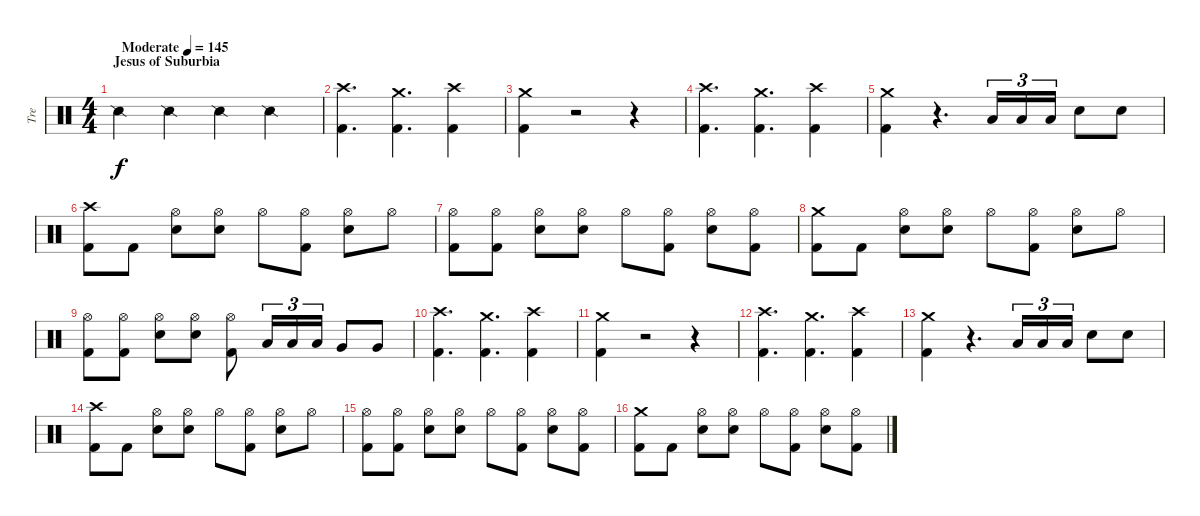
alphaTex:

\track ("Tre" "Tre") {instrument percussion}
\staff {score}
\articulation defaults
\ts (4 4)
\section ("" "Jesus of Suburbia")
\tempo (145 "Moderate")
\clef neutral
\ks c "Snare (side stick) 2".4{dy f} "Snare (side stick) 2".4 "Snare (side stick) 2".4 "Snare (side stick) 2".4
|
("Crash high (hit)" "Kick (hit) 2").4{d} ("Crash medium (hit)" "Kick (hit) 2").4{d} ("Crash high (hit)" "Kick (hit) 2").4 |
("Crash medium (hit)" "Kick (hit) 2").4 r.2 r.4 |
("Crash high (hit)" "Kick (hit) 2").4{d} ("Crash medium (hit)" "Kick (hit) 2").4{d} ("Crash high (hit)" "Kick (hit) 2").4 |
("Crash medium (hit)" "Kick (hit) 2").4 r.4{d} "Low Tom (hit)".16{tu (3 2)} "Low Tom (hit)".16{tu (3 2)} "Low Tom (hit)".16{tu (3 2)} "Snare (hit) 2".8 "Snare (hit) 2".8 |
("Crash high (hit)" "Kick (hit) 2").8 "Kick (hit) 2".8 ("Hi-Hat (open)" "Snare (hit) 2").8 ("Hi-Hat (open)" "Snare (hit) 2").8 "Hi-Hat (open)".8 ("Hi-Hat (open)" "Kick (hit) 2").8 ("Hi-Hat (open)" "Snare (hit) 2").8 "Hi-Hat (open)".8 |
("Hi-Hat (open)" "Kick (hit) 2").8 ("Hi-Hat (open)" "Kick (hit) 2").8 ("Hi-Hat (open)" "Snare (hit) 2").8 ("Hi-Hat (open)" "Snare (hit) 2").8 "Hi-Hat (open)".8 ("Hi-Hat (open)" "Kick (hit) 2").8 ("Hi-Hat (open)" "Snare (hit) 2").8 ("Hi-Hat (open)" "Kick (hit) 2").8 |
("Crash medium (hit)" "Kick (hit) 2").8 "Kick (hit) 2".8 ("Hi-Hat (open)" "Snare (hit) 2").8 ("Hi-Hat (open)" "Snare (hit) 2").8 "Hi-Hat (open)".8 ("Hi-Hat (open)" "Kick (hit) 2").8 ("Hi-Hat (open)" "Snare (hit) 2").8 "Hi-Hat (open)".8 |
("Hi-Hat (open)" "Kick (hit) 2").8 ("Hi-Hat (open)" "Kick (hit) 2").8 ("Hi-Hat (open)" "Snare (hit) 2").8 ("Hi-Hat (open)" "Snare (hit) 2").8 ("Hi-Hat (open)" "Kick (hit) 2").8 "Low Tom (hit)".16{tu (3 2)} "Low Tom (hit)".16{tu (3 2)} "Low Tom (hit)".16{tu (3 2)} "Very Low Tom (hit)".8 "Very Low Tom (hit)".8 |
("Crash high (hit)" "Kick (hit) 2").4{d} ("Crash medium (hit)" "Kick (hit) 2").4{d} ("Crash high (hit)" "Kick (hit) 2").4 |
("Crash medium (hit)" "Kick (hit) 2").4 r.2 r.4 |
("Crash high (hit)" "Kick (hit) 2").4{d} ("Crash medium (hit)" "Kick (hit) 2").4{d} ("Crash high (hit)" "Kick (hit) 2").4 |
("Crash medium (hit)" "Kick (hit) 2").4 r.4{d} "Low Tom (hit)".16{tu (3 2)} "Low Tom (hit)".16{tu (3 2)} "Low Tom (hit)".16{tu (3 2)} "Snare (hit) 2".8 "Snare (hit) 2".8 |
("Crash high (hit)" "Kick (hit) 2").8 "Kick (hit) 2".8 ("Hi-Hat (open)" "Snare (hit) 2").8 ("Hi-Hat (open)" "Snare (hit) 2").8 "Hi-Hat (open)".8 ("Hi-Hat (open)" "Kick (hit) 2").8 ("Hi-Hat (open)" "Snare (hit) 2").8 "Hi-Hat (open)".8 |
("Hi-Hat (open)" "Kick (hit) 2").8 ("Hi-Hat (open)" "Kick (hit) 2").8 ("Hi-Hat (open)" "Snare (hit) 2").8 ("Hi-Hat (open)" "Snare (hit) 2").8 "Hi-Hat (open)".8 ("Hi-Hat (open)" "Kick (hit) 2").8 ("Hi-Hat (open)" "Snare (hit) 2").8 ("Hi-Hat (open)" "Kick (hit) 2").8 |
("Crash medium (hit)" "Kick (hit) 2").8 "Kick (hit) 2".8 ("Hi-Hat (open)" "Snare (hit) 2").8 ("Hi-Hat (open)" "Snare (hit) 2").8 "Hi-Hat (open)".8 ("Hi-Hat (open)" "Kick (hit) 2").8 ("Hi-Hat (open)" "Snare (hit) 2").8 ("Hi-Hat (open)" "Kick (hit) 2").8
